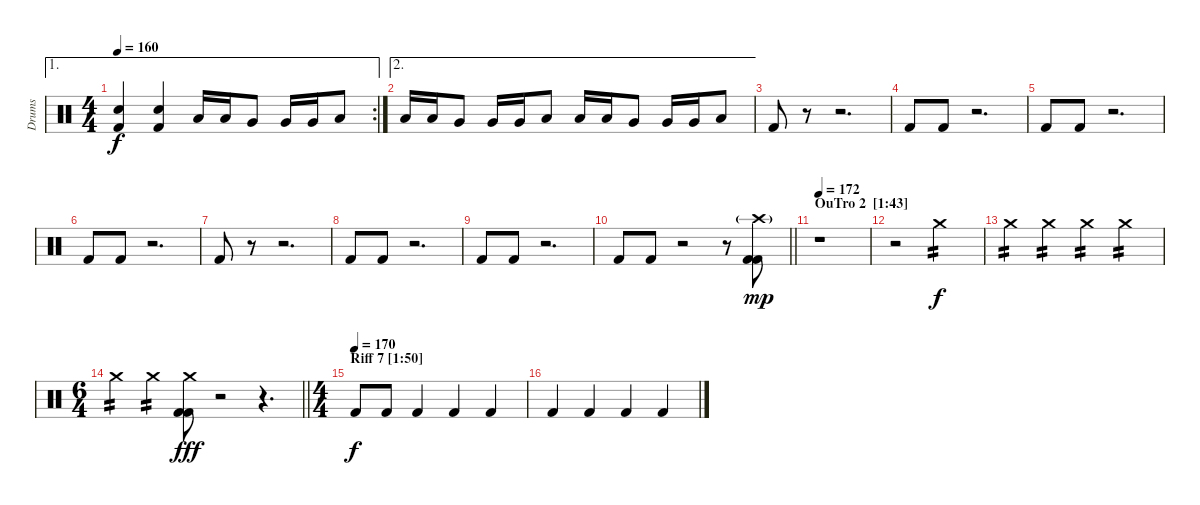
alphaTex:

\track ("Drums" "Drums") {instrument percussion}
\staff {score}
\articulation defaults
\ae 1
\rc 2
\ts (4 4)
\tempo 160
\clef neutral
\ks c
("Electric Snare (hit)" "Kick (hit) 2").4{dy f} ("Electric Snare (hit)" "Kick (hit) 2").4 "Low Tom (hit)".16 "Low Tom (hit)".16 "Very Low Tom (hit)".8 "Very Low Tom (hit)".16 "Very Low Tom (hit)".16 "Low Floor Tom (hit)".8 |
\ae 2 "Low Floor Tom (hit)".16 "Low Floor Tom (hit)".16 "Very Low Tom (hit)".8 "Very Low Tom (hit)".16 "Very Low Tom (hit)".16 "Low Tom (hit)".8 "Low Tom (hit)".16 "Low Tom (hit)".16 "Very Low Tom (hit)".8 "Very Low Tom (hit)".16 "Very Low Tom (hit)".16 "Low Floor Tom (hit)".8
|
"Kick (hit) 2".8 r.8 r.2{d} |
"Kick (hit) 2".8 "Kick (hit) 2".8 r.2{d} |
"Kick (hit) 2".8 "Kick (hit) 2".8 r.2{d} |
"Kick (hit) 2".8 "Kick (hit) 2".8 r.2{d} |
"Kick (hit) 2".8 r.8 r.2{d} |
"Kick (hit) 2".8 "Kick (hit) 2".8 r.2{d} |
"Kick (hit) 2".8 "Kick (hit) 2".8 r.2{d} |
\barLineRight lightlight "Kick (hit) 2".8 "Kick (hit) 2".8
r.2 r.8 ("Crash high (hit)"{g} "Kick (hit) 2" "Kick (hit) 2").8{dy mp} |
\section ("" "OuTro 2  [1:43]")
\tempo 172
r.1 |
r.2 "Crash medium (hit)".2{tp 2 dy f volume 5} |
"Crash medium (hit)".4{tp 2 volume 7} "Crash medium (hit)".4{tp 2 volume 9} "Crash medium (hit)".4{tp 2 volume 11} "Crash medium (hit)".4{tp 2 volume 13} |
\ts (6 4)
\barLineRight lightlight "Crash medium (hit)".4{tp 2 volume 15} "Crash medium (hit)".4{tp 2}
("Crash medium (hit)" "Kick (hit) 2" "Kick (hit) 2").8{dy fff} r.2 r.4{d} |
\ts (4 4)
\section ("" "Riff 7 [1:50]")
\tempo (170)
"Kick (hit) 2".8{dy f} "Kick (hit) 2".8 "Kick (hit) 2".4 "Kick (hit) 2".4 "Kick (hit) 2".4 |
"Kick (hit) 2".4 "Kick (hit) 2".4 "Kick (hit) 2".4 "Kick (hit) 2".4
